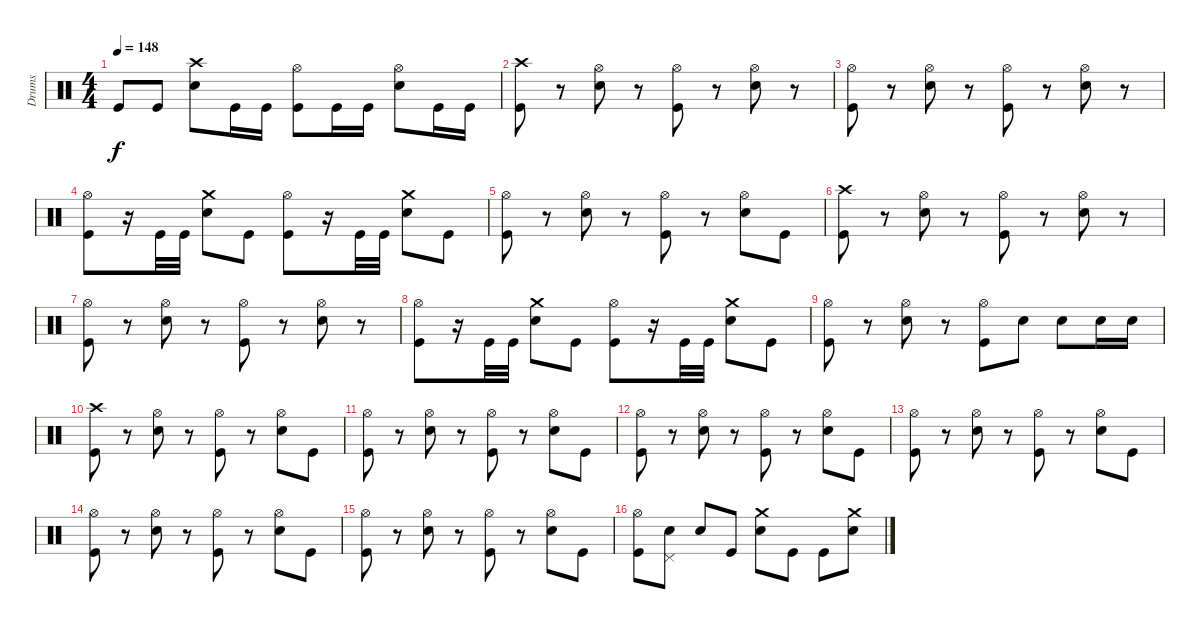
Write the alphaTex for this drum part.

\track ("Drums" "Drums") {instrument percussion}
\staff {score}
\articulation defaults
\ts (4 4)
\tempo 148
\clef neutral
\ks c "Kick (hit)".8{dy f} "Kick (hit)".8
("Crash high (hit)" "Electric Snare (hit)").8 "Kick (hit)".16 "Kick (hit)".16 ("Hi-Hat (open)" "Kick (hit)").8 "Kick (hit)".16 "Kick (hit)".16 ("Hi-Hat (open)" "Electric Snare (hit)").8 "Kick (hit)".16 "Kick (hit)".16 |
("Crash high (hit)" "Kick (hit)").8 r.8 ("Hi-Hat (open)" "Electric Snare (hit)").8 r.8 ("Hi-Hat (open)" "Kick (hit)").8 r.8 ("Hi-Hat (open)" "Electric Snare (hit)").8 r.8 |
("Hi-Hat (open)" "Kick (hit)").8 r.8 ("Hi-Hat (open)" "Electric Snare (hit)").8 r.8 ("Hi-Hat (open)" "Kick (hit)").8 r.8 ("Hi-Hat (open)" "Electric Snare (hit)").8 r.8 |
("Hi-Hat (open)" "Kick (hit)").8 r.16 "Kick (hit)".32 "Kick (hit)".32 ("Crash medium (hit)" "Electric Snare (hit)").8 "Kick (hit)".8 ("Hi-Hat (open)" "Kick (hit)").8 r.16 "Kick (hit)".32 "Kick (hit)".32 ("Crash medium (hit)" "Electric Snare (hit)").8 "Kick (hit)".8 |
("Hi-Hat (open)" "Kick (hit)").8 r.8 ("Hi-Hat (open)" "Electric Snare (hit)").8 r.8 ("Hi-Hat (open)" "Kick (hit)").8 r.8 ("Hi-Hat (open)" "Electric Snare (hit)").8 "Kick (hit)".8 |
("Crash high (hit)" "Kick (hit)").8 r.8 ("Hi-Hat (open)" "Electric Snare (hit)").8 r.8 ("Hi-Hat (open)" "Kick (hit)").8 r.8 ("Hi-Hat (open)" "Electric Snare (hit)").8 r.8 |
("Hi-Hat (open)" "Kick (hit)").8 r.8 ("Hi-Hat (open)" "Electric Snare (hit)").8 r.8 ("Hi-Hat (open)" "Kick (hit)").8 r.8 ("Hi-Hat (open)" "Electric Snare (hit)").8 r.8 |
("Hi-Hat (open)" "Kick (hit)").8 r.16 "Kick (hit)".32 "Kick (hit)".32 ("Crash medium (hit)" "Electric Snare (hit)").8 "Kick (hit)".8 ("Hi-Hat (open)" "Kick (hit)").8 r.16 "Kick (hit)".32 "Kick (hit)".32 ("Crash medium (hit)" "Electric Snare (hit)").8 "Kick (hit)".8 |
("Hi-Hat (open)" "Kick (hit)").8 r.8 ("Hi-Hat (open)" "Electric Snare (hit)").8 r.8 ("Hi-Hat (open)" "Kick (hit)").8 "Electric Snare (hit)".8 "Electric Snare (hit)".8 "Electric Snare (hit)".16 "Electric Snare (hit)".16 |
("Crash high (hit)" "Kick (hit)").8 r.8 ("Hi-Hat (open)" "Electric Snare (hit)").8 r.8 ("Hi-Hat (open)" "Kick (hit)").8 r.8 ("Hi-Hat (open)" "Electric Snare (hit)").8 "Kick (hit)".8 |
("Hi-Hat (open)" "Kick (hit)").8 r.8 ("Hi-Hat (open)" "Electric Snare (hit)").8 r.8 ("Hi-Hat (open)" "Kick (hit)").8 r.8 ("Hi-Hat (open)" "Electric Snare (hit)").8 "Kick (hit)".8 |
("Hi-Hat (open)" "Kick (hit)").8 r.8 ("Hi-Hat (open)" "Electric Snare (hit)").8 r.8 ("Hi-Hat (open)" "Kick (hit)").8 r.8 ("Hi-Hat (open)" "Electric Snare (hit)").8 "Kick (hit)".8 |
("Hi-Hat (open)" "Kick (hit)").8 r.8 ("Hi-Hat (open)" "Electric Snare (hit)").8 r.8 ("Hi-Hat (open)" "Kick (hit)").8 r.8 ("Hi-Hat (open)" "Electric Snare (hit)").8 "Kick (hit)".8 |
("Hi-Hat (open)" "Kick (hit)").8 r.8 ("Hi-Hat (open)" "Electric Snare (hit)").8 r.8 ("Hi-Hat (open)" "Kick (hit)").8 r.8 ("Hi-Hat (open)" "Electric Snare (hit)").8 "Kick (hit)".8 |
("Hi-Hat (open)" "Kick (hit)").8 r.8 ("Hi-Hat (open)" "Electric Snare (hit)").8 r.8 ("Hi-Hat (open)" "Kick (hit)").8 r.8 ("Hi-Hat (open)" "Electric Snare (hit)").8 "Kick (hit)".8 |
("Hi-Hat (open)" "Kick (hit)").8 ("Pedal Hi-Hat (hit)" "Electric Snare (hit)").8 "Electric Snare (hit)".8 "Kick (hit)".8 ("Crash medium (hit)" "Electric Snare (hit)").8 "Kick (hit)".8 "Kick (hit)".8 ("Crash medium (hit)" "Electric Snare (hit)").8
